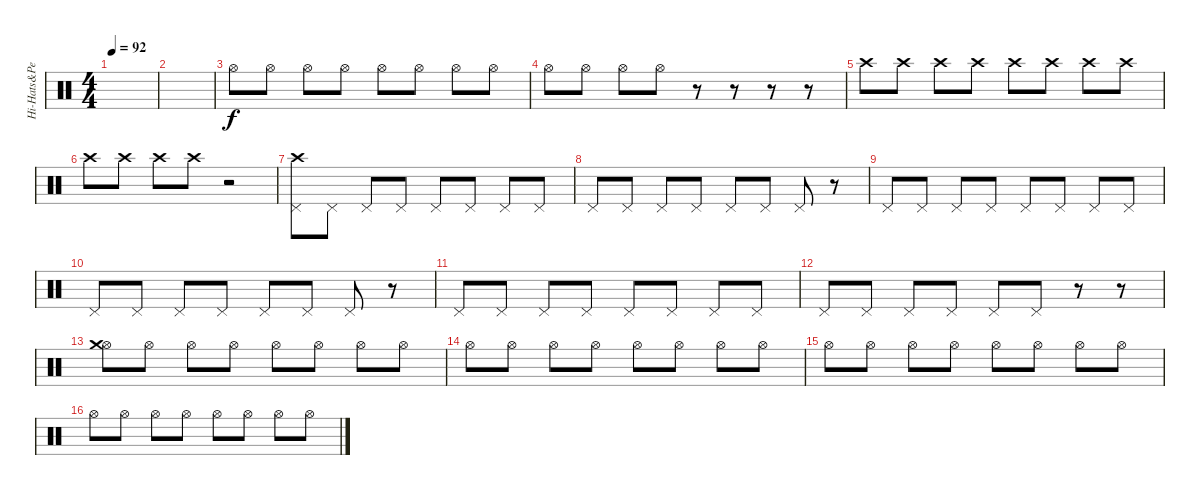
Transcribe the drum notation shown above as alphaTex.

\track ("Hi-Hats&Percussion" "Hi-Hats&Pe") {instrument percussion}
\staff {score}
\articulation defaults
\ts (4 4)
\tempo 92
\clef neutral
\ks c
|
|
"Hi-Hat (open)".8 "Hi-Hat (open)".8 "Hi-Hat (open)".8 "Hi-Hat (open)".8 "Hi-Hat (open)".8 "Hi-Hat (open)".8 "Hi-Hat (open)".8 "Hi-Hat (open)".8 |
"Hi-Hat (open)".8 "Hi-Hat (open)".8 "Hi-Hat (open)".8 "Hi-Hat (open)".8 r.8 r.8 r.8 r.8 |
"Crash high (hit)".8 "Crash high (hit)".8 "Crash high (hit)".8 "Crash high (hit)".8 "Crash high (hit)".8 "Crash high (hit)".8 "Crash high (hit)".8 "Crash high (hit)".8 |
"Crash high (hit)".8 "Crash high (hit)".8 "Crash high (hit)".8 "Crash high (hit)".8 r.2 |
("Pedal Hi-Hat (hit)" "Crash high (hit)").8 "Pedal Hi-Hat (hit)".8 "Pedal Hi-Hat (hit)".8 "Pedal Hi-Hat (hit)".8 "Pedal Hi-Hat (hit)".8 "Pedal Hi-Hat (hit)".8 "Pedal Hi-Hat (hit)".8 "Pedal Hi-Hat (hit)".8 |
"Pedal Hi-Hat (hit)".8 "Pedal Hi-Hat (hit)".8 "Pedal Hi-Hat (hit)".8 "Pedal Hi-Hat (hit)".8 "Pedal Hi-Hat (hit)".8 "Pedal Hi-Hat (hit)".8 "Pedal Hi-Hat (hit)".8 r.8 |
"Pedal Hi-Hat (hit)".8 "Pedal Hi-Hat (hit)".8 "Pedal Hi-Hat (hit)".8 "Pedal Hi-Hat (hit)".8 "Pedal Hi-Hat (hit)".8 "Pedal Hi-Hat (hit)".8 "Pedal Hi-Hat (hit)".8 "Pedal Hi-Hat (hit)".8 |
"Pedal Hi-Hat (hit)".8 "Pedal Hi-Hat (hit)".8 "Pedal Hi-Hat (hit)".8 "Pedal Hi-Hat (hit)".8 "Pedal Hi-Hat (hit)".8 "Pedal Hi-Hat (hit)".8 "Pedal Hi-Hat (hit)".8 r.8 |
"Pedal Hi-Hat (hit)".8 "Pedal Hi-Hat (hit)".8 "Pedal Hi-Hat (hit)".8 "Pedal Hi-Hat (hit)".8 "Pedal Hi-Hat (hit)".8 "Pedal Hi-Hat (hit)".8 "Pedal Hi-Hat (hit)".8 "Pedal Hi-Hat (hit)".8 |
"Pedal Hi-Hat (hit)".8 "Pedal Hi-Hat (hit)".8 "Pedal Hi-Hat (hit)".8 "Pedal Hi-Hat (hit)".8 "Pedal Hi-Hat (hit)".8 "Pedal Hi-Hat (hit)".8 r.8 r.8 |
("Hi-Hat (open)" "Crash medium (hit)").8 "Hi-Hat (open)".8 "Hi-Hat (open)".8 "Hi-Hat (open)".8 "Hi-Hat (open)".8 "Hi-Hat (open)".8 "Hi-Hat (open)".8 "Hi-Hat (open)".8 |
"Hi-Hat (open)".8 "Hi-Hat (open)".8 "Hi-Hat (open)".8 "Hi-Hat (open)".8 "Hi-Hat (open)".8 "Hi-Hat (open)".8 "Hi-Hat (open)".8 "Hi-Hat (open)".8 |
"Hi-Hat (open)".8 "Hi-Hat (open)".8 "Hi-Hat (open)".8 "Hi-Hat (open)".8 "Hi-Hat (open)".8 "Hi-Hat (open)".8 "Hi-Hat (open)".8 "Hi-Hat (open)".8 |
"Hi-Hat (open)".8 "Hi-Hat (open)".8 "Hi-Hat (open)".8 "Hi-Hat (open)".8 "Hi-Hat (open)".8 "Hi-Hat (open)".8 "Hi-Hat (open)".8 "Hi-Hat (open)".8
